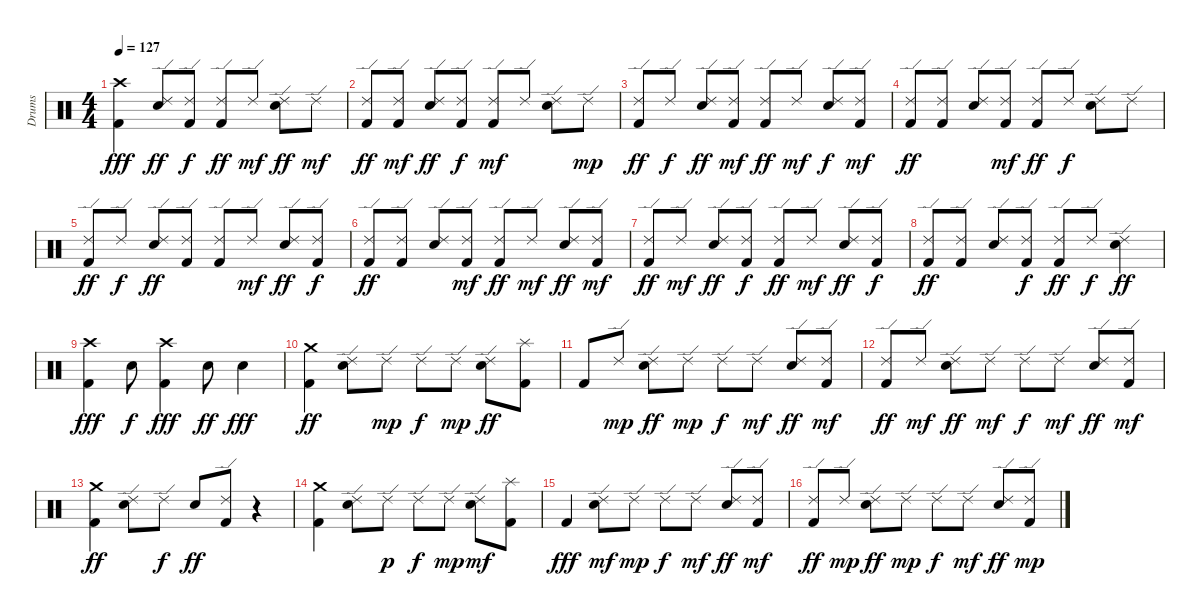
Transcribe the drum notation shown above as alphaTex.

\track ("Drums" "Drums") {instrument percussion}
\staff {score}
\articulation defaults
\ts (4 4)
\tempo 127
\clef neutral
\ks c
("Kick (hit) 2" "Crash high (hit)").4{dy fff} ("Ride (edge) 2" "Electric Snare (hit)").8{dy ff} ("Ride (edge) 2" "Kick (hit) 2").8{dy f} ("Ride (edge) 2" "Kick (hit) 2").8{dy ff} "Ride (edge) 2".8{dy mf} ("Electric Snare (hit)" "Ride (edge) 2").8{dy ff} "Ride (edge) 2".8{dy mf} |
("Ride (edge) 2" "Kick (hit) 2").8{dy ff} ("Kick (hit) 2" "Ride (edge) 2").8{dy mf} ("Electric Snare (hit)" "Ride (edge) 2").8{dy ff} ("Kick (hit) 2" "Ride (edge) 2").8{dy f} ("Kick (hit) 2" "Ride (edge) 2").8{dy mf} "Ride (edge) 2".8 ("Electric Snare (hit)" "Ride (edge) 2").8 "Ride (edge) 2".8{dy mp} |
("Ride (edge) 2" "Kick (hit) 2").8{dy ff} "Ride (edge) 2".8{dy f} ("Ride (edge) 2" "Electric Snare (hit)").8{dy ff} ("Kick (hit) 2" "Ride (edge) 2").8{dy mf} ("Kick (hit) 2" "Ride (edge) 2").8{dy ff} "Ride (edge) 2".8{dy mf} ("Electric Snare (hit)" "Ride (edge) 2").8{dy f} ("Kick (hit) 2" "Ride (edge) 2").8{dy mf} |
("Kick (hit) 2" "Ride (edge) 2").8{dy ff} ("Kick (hit) 2" "Ride (edge) 2").8 ("Electric Snare (hit)" "Ride (edge) 2").8 ("Kick (hit) 2" "Ride (edge) 2").8{dy mf} ("Kick (hit) 2" "Ride (edge) 2").8{dy ff} "Ride (edge) 2".8{dy f} ("Electric Snare (hit)" "Ride (edge) 2").8 "Ride (edge) 2".8 |
("Ride (edge) 2" "Kick (hit) 2").8{dy ff} "Ride (edge) 2".8{dy f} ("Ride (edge) 2" "Electric Snare (hit)").8{dy ff} ("Ride (edge) 2" "Kick (hit) 2").8 ("Ride (edge) 2" "Kick (hit) 2").8 "Ride (edge) 2".8{dy mf} ("Ride (edge) 2" "Electric Snare (hit)").8{dy ff} ("Kick (hit) 2" "Ride (edge) 2").8{dy f} |
("Kick (hit) 2" "Ride (edge) 2").8{dy ff} ("Kick (hit) 2" "Ride (edge) 2").8 ("Electric Snare (hit)" "Ride (edge) 2").8 ("Kick (hit) 2" "Ride (edge) 2").8{dy mf} ("Kick (hit) 2" "Ride (edge) 2").8{dy ff} "Ride (edge) 2".8{dy mf} ("Electric Snare (hit)" "Ride (edge) 2").8{dy ff} ("Kick (hit) 2" "Ride (edge) 2").8{dy mf} |
("Kick (hit) 2" "Ride (edge) 2").8{dy ff} "Ride (edge) 2".8{dy mf} ("Electric Snare (hit)" "Ride (edge) 2").8{dy ff} ("Kick (hit) 2" "Ride (edge) 2").8{dy f} ("Kick (hit) 2" "Ride (edge) 2").8{dy ff} "Ride (edge) 2".8{dy mf} ("Electric Snare (hit)" "Ride (edge) 2").8{dy ff} ("Kick (hit) 2" "Ride (edge) 2").8{dy f} |
("Kick (hit) 2" "Ride (edge) 2").8{dy ff} ("Kick (hit) 2" "Ride (edge) 2").8 ("Electric Snare (hit)" "Ride (edge) 2").8 ("Kick (hit) 2" "Ride (edge) 2").8{dy f} ("Kick (hit) 2" "Ride (edge) 2").8{dy ff} "Ride (edge) 2".8{dy f} ("Electric Snare (hit)" "Ride (edge) 2").4{dy ff} |
("Crash high (hit)" "Kick (hit) 2").4{dy fff} "Electric Snare (hit)".8{dy f} ("Crash high (hit)" "Kick (hit) 2").4{dy fff} "Electric Snare (hit)".8{dy ff} "Electric Snare (hit)".4{dy fff} |
("Kick (hit) 2" "Crash medium (hit)").4{dy ff} ("Ride (edge) 2" "Electric Snare (hit)").8 "Ride (edge) 2".8{dy mp} "Ride (edge) 2".8{dy f} "Ride (edge) 2".8{dy mp} ("Electric Snare (hit)" "Ride (edge) 2").8{dy ff} ("Splash (hit)" "Kick (hit) 2").8 |
"Kick (hit) 2".8 "Ride (edge) 2".8{dy mp} ("Electric Snare (hit)" "Ride (edge) 2").8{dy ff} "Ride (edge) 2".8{dy mp} "Ride (edge) 2".8{dy f} "Ride (edge) 2".8{dy mf} ("Ride (edge) 2" "Electric Snare (hit)").8{dy ff} ("Ride (edge) 2" "Kick (hit) 2").8{dy mf} |
("Kick (hit) 2" "Ride (edge) 2").8{dy ff} "Ride (edge) 2".8{dy mf} ("Electric Snare (hit)" "Ride (edge) 2").8{dy ff} "Ride (edge) 2".8{dy mf} "Ride (edge) 2".8{dy f} "Ride (edge) 2".8{dy mf} ("Electric Snare (hit)" "Ride (edge) 2").8{dy ff} ("Ride (edge) 2" "Kick (hit) 2").8{dy mf} |
("Crash medium (hit)" "Kick (hit) 2").4{dy ff} ("Ride (edge) 2" "Electric Snare (hit)").8 "Ride (edge) 2".8{dy f} "Electric Snare (hit)".8{dy ff} ("Kick (hit) 2" "Ride (edge) 2").8 r.4 |
("Kick (hit) 2" "Crash medium (hit)").4 ("Ride (edge) 2" "Electric Snare (hit)").8 "Ride (edge) 2".8{dy p} "Ride (edge) 2".8{dy f} "Ride (edge) 2".8{dy mp} ("Electric Snare (hit)" "Ride (edge) 2").8{dy mf} ("Kick (hit) 2" "Splash (hit)").8 |
"Kick (hit) 2".4{dy fff} ("Electric Snare (hit)" "Ride (edge) 2").8{dy mf} "Ride (edge) 2".8{dy mp} "Ride (edge) 2".8{dy f} "Ride (edge) 2".8{dy mf} ("Ride (edge) 2" "Electric Snare (hit)").8{dy ff} ("Kick (hit) 2" "Ride (edge) 2").8{dy mf} |
("Kick (hit) 2" "Ride (edge) 2").8{dy ff} "Ride (edge) 2".8{dy mp} ("Electric Snare (hit)" "Ride (edge) 2").8{dy ff} "Ride (edge) 2".8{dy mp} "Ride (edge) 2".8{dy f} "Ride (edge) 2".8{dy mf} ("Ride (edge) 2" "Electric Snare (hit)").8{dy ff} ("Ride (edge) 2" "Kick (hit) 2").8{dy mp}
